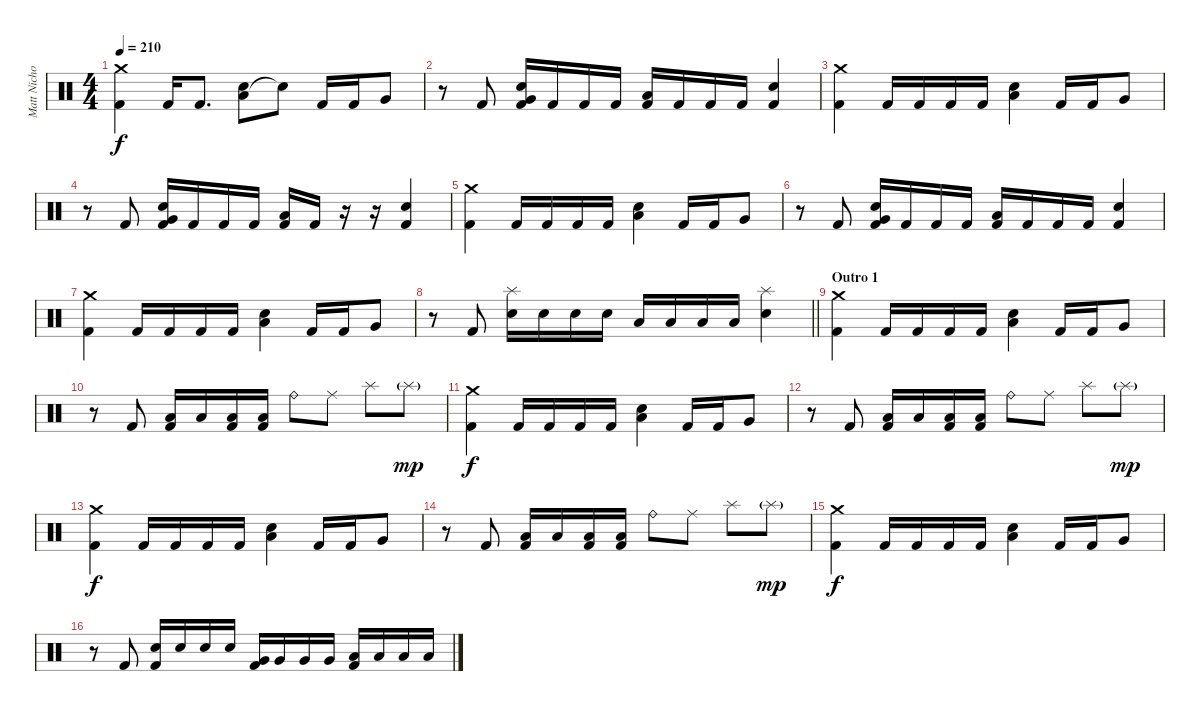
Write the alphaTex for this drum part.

\track ("Matt Nicholls" "Matt Nicho") {instrument percussion}
\staff {score}
\articulation defaults
\ts (4 4)
\tempo 210
\clef neutral
\ks c
("Crash medium (hit)" "Kick (hit) 2").4{dy f} "Kick (hit) 2".16 "Kick (hit) 2".8{d} ("Low Tom (hit)" "Snare (hit) 2").8 "Snare (hit)"{t}.8 "Kick (hit) 2".16 "Kick (hit) 2".16 "Very Low Tom (hit)".8 |
r.8 "Kick (hit) 2".8 ("Very Low Tom (hit)" "Snare (hit) 2" "Kick (hit) 2").16 "Kick (hit) 2".16 "Kick (hit) 2".16 "Kick (hit) 2".16 ("Low Floor Tom (hit)" "Kick (hit) 2").16 "Kick (hit) 2".16 "Kick (hit) 2".16 "Kick (hit) 2".16 ("Snare (hit) 2" "Kick (hit) 2").4 |
("Crash medium (hit)" "Kick (hit) 2").4 "Kick (hit) 2".16 "Kick (hit) 2".16 "Kick (hit) 2".16 "Kick (hit) 2".16 ("Low Tom (hit)" "Snare (hit) 2").4 "Kick (hit) 2".16 "Kick (hit) 2".16 "Very Low Tom (hit)".8 |
r.8 "Kick (hit) 2".8 ("Very Low Tom (hit)" "Snare (hit) 2" "Kick (hit) 2").16 "Kick (hit) 2".16 "Kick (hit) 2".16 "Kick (hit) 2".16 ("Low Floor Tom (hit)" "Kick (hit) 2").16 "Kick (hit) 2".16 r.16 r.16 ("Snare (hit) 2" "Kick (hit) 2").4 |
("Crash medium (hit)" "Kick (hit) 2").4 "Kick (hit) 2".16 "Kick (hit) 2".16 "Kick (hit) 2".16 "Kick (hit) 2".16 ("Low Tom (hit)" "Snare (hit) 2").4 "Kick (hit) 2".16 "Kick (hit) 2".16 "Very Low Tom (hit)".8 |
r.8 "Kick (hit) 2".8 ("Very Low Tom (hit)" "Snare (hit) 2" "Kick (hit) 2").16 "Kick (hit) 2".16 "Kick (hit) 2".16 "Kick (hit) 2".16 ("Low Floor Tom (hit)" "Kick (hit) 2").16 "Kick (hit) 2".16 "Kick (hit) 2".16 "Kick (hit) 2".16 ("Snare (hit) 2" "Kick (hit) 2").4 |
("Crash medium (hit)" "Kick (hit) 2").4 "Kick (hit) 2".16 "Kick (hit) 2".16 "Kick (hit) 2".16 "Kick (hit) 2".16 ("Low Tom (hit)" "Snare (hit) 2").4 "Kick (hit) 2".16 "Kick (hit) 2".16 "Very Low Tom (hit)".8 |
\barLineRight lightlight
r.8 "Kick (hit) 2".8 ("Splash (hit)" "Snare (hit) 2").16 "Snare (hit) 2".16 "Snare (hit) 2".16 "Snare (hit) 2".16 "Low Floor Tom (hit)".16 "Low Floor Tom (hit)".16 "Low Floor Tom (hit)".16 "Low Floor Tom (hit)".16 ("Splash (hit)" "Snare (hit) 2").4 |
\section ("" "Outro 1")
("Crash medium (hit)" "Kick (hit) 2").4 "Kick (hit) 2".16 "Kick (hit) 2".16 "Kick (hit) 2".16 "Kick (hit) 2".16 ("Low Tom (hit)" "Snare (hit) 2").4 "Kick (hit) 2".16 "Kick (hit) 2".16 "Very Low Tom (hit)".8 |
r.8 "Kick (hit) 2".8 ("Low Floor Tom (hit)" "Kick (hit) 2").16 "Low Floor Tom (hit)".16 ("Low Floor Tom (hit)" "Kick (hit) 2").16 ("Low Floor Tom (hit)" "Kick (hit) 2").16 "Ride (bell)".8 "Ride (middle)".8 "Splash (hit)".8 "Splash (hit)"{g}.8{dy mp} |
("Crash medium (hit)" "Kick (hit) 2").4{dy f} "Kick (hit) 2".16 "Kick (hit) 2".16 "Kick (hit) 2".16 "Kick (hit) 2".16 ("Low Tom (hit)" "Snare (hit) 2").4 "Kick (hit) 2".16 "Kick (hit) 2".16 "Very Low Tom (hit)".8 |
r.8 "Kick (hit) 2".8 ("Low Floor Tom (hit)" "Kick (hit) 2").16 "Low Floor Tom (hit)".16 ("Low Floor Tom (hit)" "Kick (hit) 2").16 ("Low Floor Tom (hit)" "Kick (hit) 2").16 "Ride (bell)".8 "Ride (middle)".8 "Splash (hit)".8 "Splash (hit)"{g}.8{dy mp} |
("Crash medium (hit)" "Kick (hit) 2").4{dy f} "Kick (hit) 2".16 "Kick (hit) 2".16 "Kick (hit) 2".16 "Kick (hit) 2".16 ("Low Tom (hit)" "Snare (hit) 2").4 "Kick (hit) 2".16 "Kick (hit) 2".16 "Very Low Tom (hit)".8 |
r.8 "Kick (hit) 2".8 ("Low Floor Tom (hit)" "Kick (hit) 2").16 "Low Floor Tom (hit)".16 ("Low Floor Tom (hit)" "Kick (hit) 2").16 ("Low Floor Tom (hit)" "Kick (hit) 2").16 "Ride (bell)".8 "Ride (middle)".8 "Splash (hit)".8 "Splash (hit)"{g}.8{dy mp} |
("Crash medium (hit)" "Kick (hit) 2").4{dy f} "Kick (hit) 2".16 "Kick (hit) 2".16 "Kick (hit) 2".16 "Kick (hit) 2".16 ("Low Tom (hit)" "Snare (hit) 2").4 "Kick (hit) 2".16 "Kick (hit) 2".16 "Very Low Tom (hit)".8 |
r.8 "Kick (hit) 2".8 ("Snare (hit) 2" "Kick (hit) 2").16 "Snare (hit) 2".16 "Snare (hit) 2".16 "Snare (hit) 2".16 ("Very Low Tom (hit)" "Kick (hit) 2").16 "Very Low Tom (hit)".16 "Very Low Tom (hit)".16 "Very Low Tom (hit)".16 ("Low Floor Tom (hit)" "Kick (hit) 2").16 "Low Floor Tom (hit)".16 "Low Floor Tom (hit)".16 "Low Floor Tom (hit)".16
